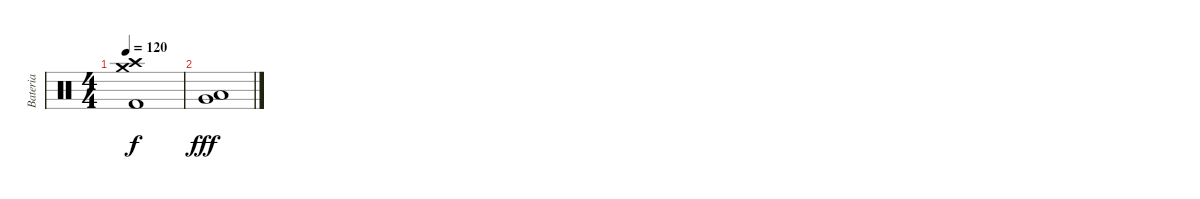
\track ("Bateria" "Bateria") {instrument percussion}
\staff {score}
\articulation defaults
\ts (4 4)
\tempo 120
\clef neutral
\ks c
("Crash medium (hit)" "Crash high (hit)" "Kick (hit) 2").1{dy f} |
("Very Low Tom (hit)" "Low Floor Tom (hit)").1{dy fff}
